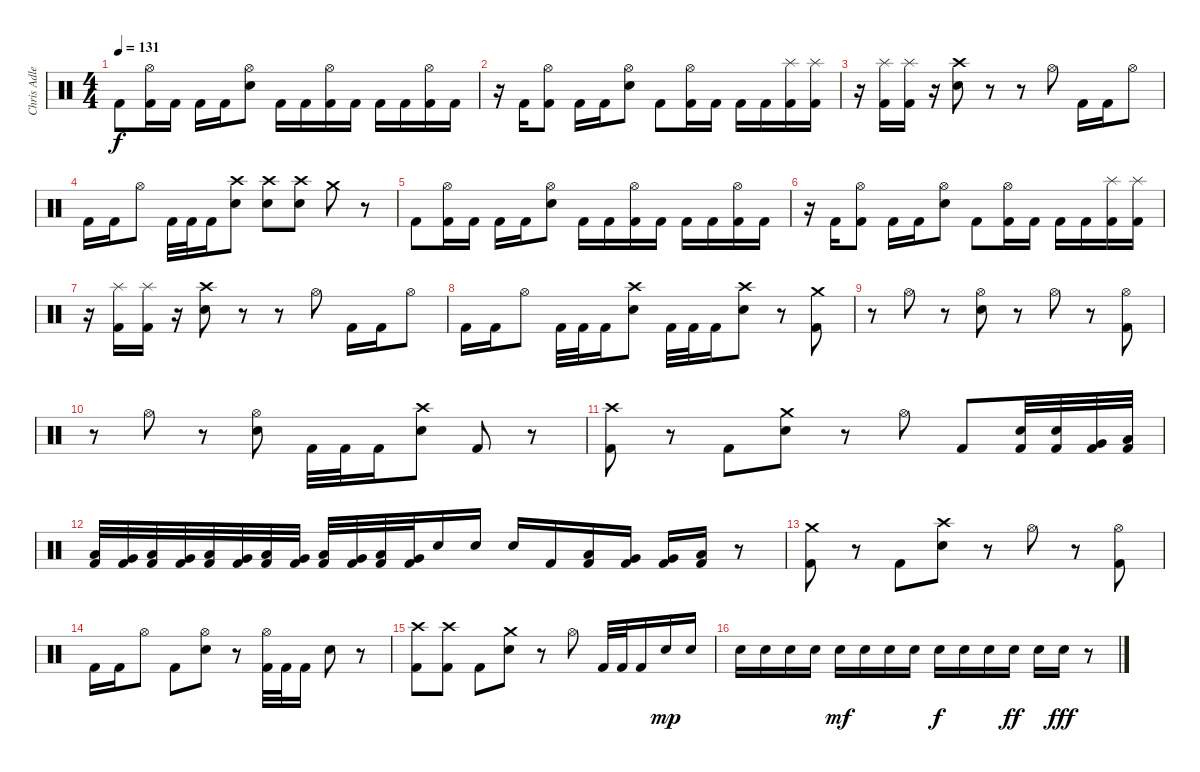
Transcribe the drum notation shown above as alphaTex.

\track ("Chris Adler" "Chris Adle") {instrument percussion}
\staff {score}
\articulation defaults
\ts (4 4)
\tempo 131
\clef neutral
\ks c "Kick (hit) 2".8{dy f}
("Hi-Hat (open)" "Kick (hit) 2").16 "Kick (hit) 2".16 "Kick (hit) 2".16 "Kick (hit) 2".16 ("Hi-Hat (open)" "Electric Snare (hit)").8 "Kick (hit) 2".16 "Kick (hit) 2".16 ("Hi-Hat (open)" "Kick (hit) 2").16 "Kick (hit) 2".16 "Kick (hit) 2".16 "Kick (hit) 2".16 ("Hi-Hat (open)" "Kick (hit) 2").16 "Kick (hit) 2".16 |
r.16 "Kick (hit) 2".16 ("Hi-Hat (open)" "Kick (hit) 2").8 "Kick (hit) 2".16 "Kick (hit) 2".16 ("Hi-Hat (open)" "Electric Snare (hit)").8 "Kick (hit) 2".8 ("Hi-Hat (open)" "Kick (hit) 2").16 "Kick (hit) 2".16 "Kick (hit) 2".16 "Kick (hit) 2".16 ("Splash (hit)" "Kick (hit) 2").16 ("Splash (hit)" "Kick (hit) 2").16 |
r.16 ("Splash (hit)" "Kick (hit) 2").16 ("Splash (hit)" "Kick (hit) 2").16 r.16 ("Crash high (hit)" "Electric Snare (hit)").8 r.8 r.8 "Hi-Hat (open)".8 "Kick (hit) 2".16 "Kick (hit) 2".16 "Hi-Hat (open)".8 |
"Kick (hit) 2".16 "Kick (hit) 2".16 "Hi-Hat (open)".8 "Kick (hit) 2".32 "Kick (hit) 2".32 "Kick (hit) 2".16 ("Crash high (hit)" "Electric Snare (hit)").8 ("Crash high (hit)" "Electric Snare (hit)").8 ("Crash high (hit)" "Electric Snare (hit)").8 "Crash medium (hit)".8 r.8 |
"Kick (hit) 2".8 ("Hi-Hat (open)" "Kick (hit) 2").16 "Kick (hit) 2".16 "Kick (hit) 2".16 "Kick (hit) 2".16 ("Hi-Hat (open)" "Electric Snare (hit)").8 "Kick (hit) 2".16 "Kick (hit) 2".16 ("Hi-Hat (open)" "Kick (hit) 2").16 "Kick (hit) 2".16 "Kick (hit) 2".16 "Kick (hit) 2".16 ("Hi-Hat (open)" "Kick (hit) 2").16 "Kick (hit) 2".16 |
r.16 "Kick (hit) 2".16 ("Hi-Hat (open)" "Kick (hit) 2").8 "Kick (hit) 2".16 "Kick (hit) 2".16 ("Hi-Hat (open)" "Electric Snare (hit)").8 "Kick (hit) 2".8 ("Hi-Hat (open)" "Kick (hit) 2").16 "Kick (hit) 2".16 "Kick (hit) 2".16 "Kick (hit) 2".16 ("Splash (hit)" "Kick (hit) 2").16 ("Splash (hit)" "Kick (hit) 2").16 |
r.16 ("Splash (hit)" "Kick (hit) 2").16 ("Splash (hit)" "Kick (hit) 2").16 r.16 ("Crash high (hit)" "Electric Snare (hit)").8 r.8 r.8 "Hi-Hat (open)".8 "Kick (hit) 2".16 "Kick (hit) 2".16 "Hi-Hat (open)".8 |
"Kick (hit) 2".16 "Kick (hit) 2".16 "Hi-Hat (open)".8 "Kick (hit) 2".32 "Kick (hit) 2".32 "Kick (hit) 2".16 ("Crash high (hit)" "Electric Snare (hit)").8 "Kick (hit) 2".32 "Kick (hit) 2".32 "Kick (hit) 2".16 ("Crash high (hit)" "Electric Snare (hit)").8 r.8 ("Crash medium (hit)" "Kick (hit) 2").8 |
r.8 "Hi-Hat (open)".8 r.8 ("Hi-Hat (open)" "Electric Snare (hit)").8 r.8 "Hi-Hat (open)".8 r.8 ("Hi-Hat (open)" "Kick (hit) 2").8 |
r.8 "Hi-Hat (open)".8 r.8 ("Hi-Hat (open)" "Electric Snare (hit)").8 "Kick (hit) 2".32 "Kick (hit) 2".32 "Kick (hit) 2".16 ("Crash high (hit)" "Electric Snare (hit)").8 "Kick (hit) 2".8 r.8 |
("Crash high (hit)" "Kick (hit) 2").8 r.8 "Kick (hit) 2".8 ("Crash medium (hit)" "Electric Snare (hit)").8 r.8 "Hi-Hat (open)".8 "Kick (hit) 2".8 ("Electric Snare (hit)" "Kick (hit) 2").32 ("Electric Snare (hit)" "Kick (hit) 2").32 ("Very Low Tom (hit)" "Kick (hit) 2").32 ("Low Floor Tom (hit)" "Kick (hit) 2").32 |
("Low Floor Tom (hit)" "Kick (hit) 2").32 ("Very Low Tom (hit)" "Kick (hit) 2").32 ("Low Floor Tom (hit)" "Kick (hit) 2").32 ("Very Low Tom (hit)" "Kick (hit) 2").32 ("Low Floor Tom (hit)" "Kick (hit) 2").32 ("Very Low Tom (hit)" "Kick (hit) 2").32 ("Low Floor Tom (hit)" "Kick (hit) 2").32 ("Very Low Tom (hit)" "Kick (hit) 2").32 ("Low Floor Tom (hit)" "Kick (hit) 2").32 ("Very Low Tom (hit)" "Kick (hit) 2").32 ("Low Floor Tom (hit)" "Kick (hit) 2").32 ("Very Low Tom (hit)" "Kick (hit) 2").32 "Electric Snare (hit)".16 "Electric Snare (hit)".16 "Electric Snare (hit)".16 "Kick (hit) 2".16 ("Low Tom (hit)" "Kick (hit) 2").16 ("Very Low Tom (hit)" "Kick (hit) 2").16 ("Very Low Tom (hit)" "Kick (hit) 2").16 ("Low Floor Tom (hit)" "Kick (hit) 2").16 r.8 |
("Crash medium (hit)" "Kick (hit) 2").8 r.8 "Kick (hit) 2".8 ("Crash high (hit)" "Electric Snare (hit)").8 r.8 "Hi-Hat (open)".8 r.8 ("Hi-Hat (open)" "Kick (hit) 2").8 |
"Kick (hit) 2".16 "Kick (hit) 2".16 "Hi-Hat (open)".8 "Kick (hit) 2".8 ("Hi-Hat (open)" "Electric Snare (hit)").8 r.8 ("Hi-Hat (open)" "Kick (hit) 2").32 "Kick (hit) 2".32 "Kick (hit) 2".16 "Electric Snare (hit)".8 r.8 |
("Crash high (hit)" "Kick (hit) 2").8 ("Crash high (hit)" "Kick (hit) 2").8 "Kick (hit) 2".8 ("Crash medium (hit)" "Electric Snare (hit)").8 r.8 "Hi-Hat (open)".8 "Kick (hit) 2".32 "Kick (hit) 2".32 "Kick (hit) 2".16 "Electric Snare (hit)".16{dy mp} "Electric Snare (hit)".16 |
"Electric Snare (hit)".16 "Electric Snare (hit)".16 "Electric Snare (hit)".16 "Electric Snare (hit)".16 "Electric Snare (hit)".16{dy mf} "Electric Snare (hit)".16 "Electric Snare (hit)".16 "Electric Snare (hit)".16 "Electric Snare (hit)".16{dy f} "Electric Snare (hit)".16 "Electric Snare (hit)".16 "Electric Snare (hit)".16{dy ff} "Electric Snare (hit)".16 "Electric Snare (hit)".16{dy fff} r.8
